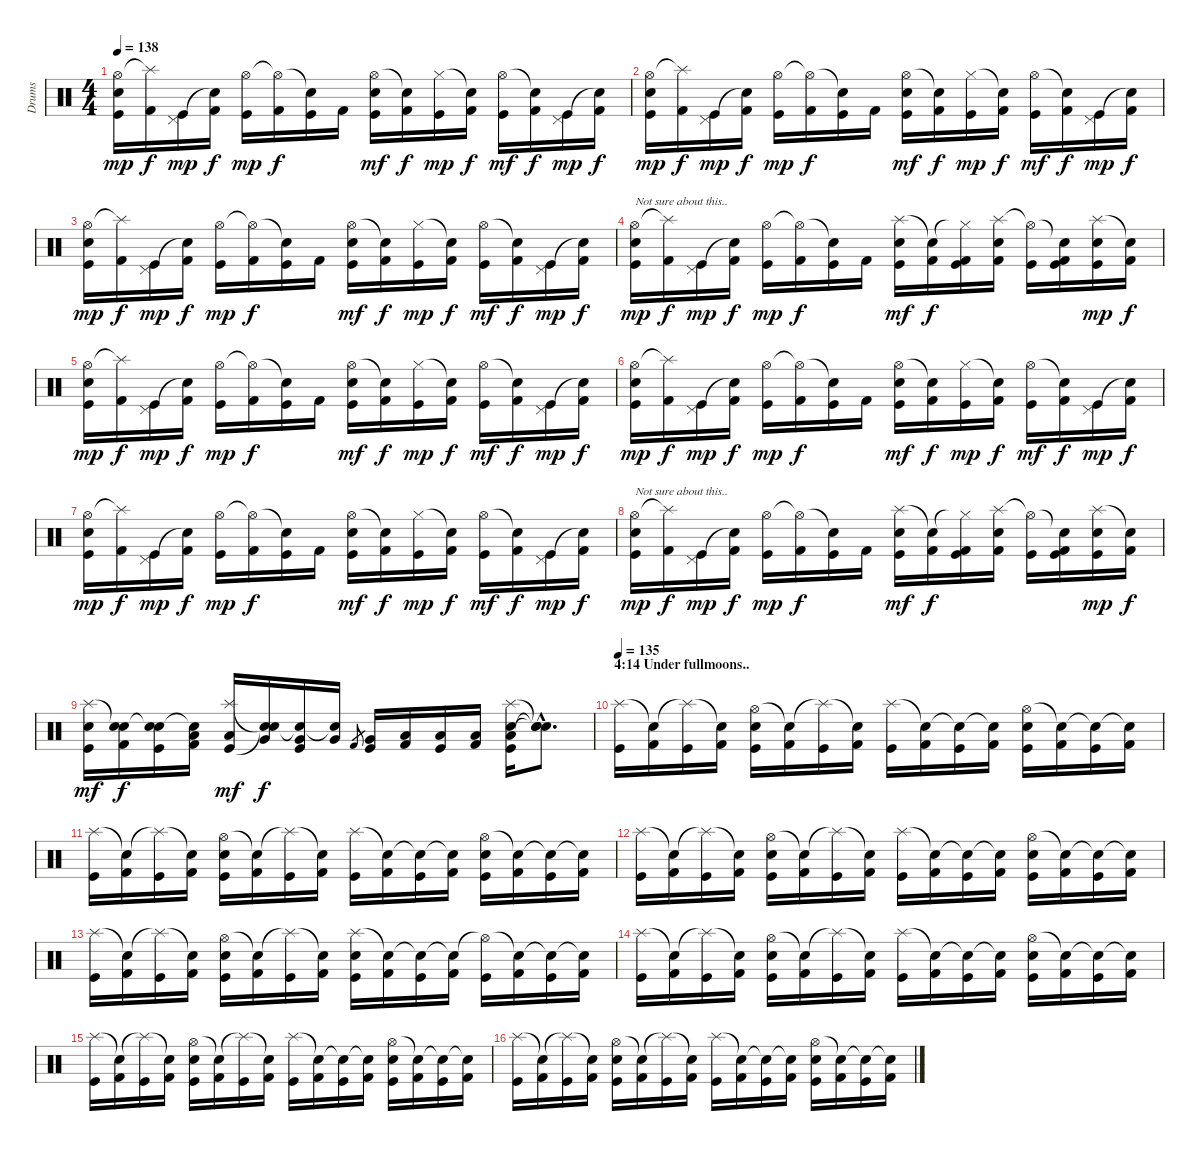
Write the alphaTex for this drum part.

\track ("Drums" "Drums") {instrument percussion}
\staff {score}
\articulation defaults
\ts (4 4)
\tempo 138
\clef neutral
\ks c
("Hi-Hat (open)" "Snare (hit) 2" "Kick (hit)").16{dy mp} ("Splash (hit)"{t} "Kick (hit) 2").16{dy f} ("Pedal Hi-Hat (hit)" "Kick (hit)").16{dy mp} ("Snare (hit)"{t} "Kick (hit) 2").16{dy f} ("Hi-Hat (open)" "Kick (hit)").16{dy mp} ("Hi-Hat (open)"{t} "Kick (hit) 2").16{dy f} ("Snare (hit)"{t} "Kick (hit)").16 "Kick (hit) 2".16 ("Hi-Hat (open)" "Snare (hit) 2" "Kick (hit)").16{dy mf} ("Snare (hit)"{t} "Kick (hit) 2").16{dy f} ("Hi-Hat (closed)" "Kick (hit)").16{dy mp} ("Snare (hit)"{t} "Kick (hit) 2").16{dy f} ("Hi-Hat (open)" "Kick (hit)").16{dy mf} ("Snare (hit)"{t} "Kick (hit) 2").16{dy f} ("Pedal Hi-Hat (hit)" "Kick (hit)").16{dy mp} ("Snare (hit)"{t} "Kick (hit) 2").16{dy f} |
("Hi-Hat (open)" "Snare (hit) 2" "Kick (hit)").16{dy mp} ("Splash (hit)"{t} "Kick (hit) 2").16{dy f} ("Pedal Hi-Hat (hit)" "Kick (hit)").16{dy mp} ("Snare (hit)"{t} "Kick (hit) 2").16{dy f} ("Hi-Hat (open)" "Kick (hit)").16{dy mp} ("Hi-Hat (open)"{t} "Kick (hit) 2").16{dy f} ("Snare (hit)"{t} "Kick (hit)").16 "Kick (hit) 2".16 ("Hi-Hat (open)" "Snare (hit) 2" "Kick (hit)").16{dy mf} ("Snare (hit)"{t} "Kick (hit) 2").16{dy f} ("Hi-Hat (closed)" "Kick (hit)").16{dy mp} ("Snare (hit)"{t} "Kick (hit) 2").16{dy f} ("Hi-Hat (open)" "Kick (hit)").16{dy mf} ("Snare (hit)"{t} "Kick (hit) 2").16{dy f} ("Pedal Hi-Hat (hit)" "Kick (hit)").16{dy mp} ("Snare (hit)"{t} "Kick (hit) 2").16{dy f} |
("Hi-Hat (open)" "Snare (hit) 2" "Kick (hit)").16{dy mp} ("Splash (hit)"{t} "Kick (hit) 2").16{dy f} ("Pedal Hi-Hat (hit)" "Kick (hit)").16{dy mp} ("Snare (hit)"{t} "Kick (hit) 2").16{dy f} ("Hi-Hat (open)" "Kick (hit)").16{dy mp} ("Hi-Hat (open)"{t} "Kick (hit) 2").16{dy f} ("Snare (hit)"{t} "Kick (hit)").16 "Kick (hit) 2".16 ("Hi-Hat (open)" "Snare (hit) 2" "Kick (hit)").16{dy mf} ("Snare (hit)"{t} "Kick (hit) 2").16{dy f} ("Hi-Hat (closed)" "Kick (hit)").16{dy mp} ("Snare (hit)"{t} "Kick (hit) 2").16{dy f} ("Hi-Hat (open)" "Kick (hit)").16{dy mf} ("Snare (hit)"{t} "Kick (hit) 2").16{dy f} ("Pedal Hi-Hat (hit)" "Kick (hit)").16{dy mp} ("Snare (hit)"{t} "Kick (hit) 2").16{dy f} |
("Hi-Hat (open)" "Snare (hit) 2" "Kick (hit)").16{txt "Not sure about this.." dy mp} ("Splash (hit)"{t} "Kick (hit) 2").16{dy f} ("Pedal Hi-Hat (hit)" "Kick (hit)").16{dy mp} ("Snare (hit)"{t} "Kick (hit) 2").16{dy f} ("Hi-Hat (open)" "Kick (hit)").16{dy mp} ("Hi-Hat (open)"{t} "Kick (hit) 2").16{dy f} ("Snare (hit)"{t} "Kick (hit)").16 "Kick (hit) 2".16 ("Splash (hit)" "Snare (hit) 2" "Kick (hit)").16{dy mf} ("Snare (hit)"{t} "Kick (hit) 2").16{dy f} ("Hi-Hat (closed)"{t} "Kick (hit) 2" "Kick (hit)").16 ("Splash (hit)" "Snare (hit) 2" "Kick (hit) 2").16 ("Hi-Hat (open)"{t} "Kick (hit)").16 ("Snare (hit)"{t} "Kick (hit)" "Kick (hit) 2").16 ("Splash (hit)" "Snare (hit) 2" "Kick (hit)").16{dy mp} ("Snare (hit)"{t} "Kick (hit) 2").16{dy f} |
("Hi-Hat (open)" "Snare (hit) 2" "Kick (hit)").16{dy mp} ("Splash (hit)"{t} "Kick (hit) 2").16{dy f} ("Pedal Hi-Hat (hit)" "Kick (hit)").16{dy mp} ("Snare (hit)"{t} "Kick (hit) 2").16{dy f} ("Hi-Hat (open)" "Kick (hit)").16{dy mp} ("Hi-Hat (open)"{t} "Kick (hit) 2").16{dy f} ("Snare (hit)"{t} "Kick (hit)").16 "Kick (hit) 2".16 ("Hi-Hat (open)" "Snare (hit) 2" "Kick (hit)").16{dy mf} ("Snare (hit)"{t} "Kick (hit) 2").16{dy f} ("Hi-Hat (closed)" "Kick (hit)").16{dy mp} ("Snare (hit)"{t} "Kick (hit) 2").16{dy f} ("Hi-Hat (open)" "Kick (hit)").16{dy mf} ("Snare (hit)"{t} "Kick (hit) 2").16{dy f} ("Pedal Hi-Hat (hit)" "Kick (hit)").16{dy mp} ("Snare (hit)"{t} "Kick (hit) 2").16{dy f} |
("Hi-Hat (open)" "Snare (hit) 2" "Kick (hit)").16{dy mp} ("Splash (hit)"{t} "Kick (hit) 2").16{dy f} ("Pedal Hi-Hat (hit)" "Kick (hit)").16{dy mp} ("Snare (hit)"{t} "Kick (hit) 2").16{dy f} ("Hi-Hat (open)" "Kick (hit)").16{dy mp} ("Hi-Hat (open)"{t} "Kick (hit) 2").16{dy f} ("Snare (hit)"{t} "Kick (hit)").16 "Kick (hit) 2".16 ("Hi-Hat (open)" "Snare (hit) 2" "Kick (hit)").16{dy mf} ("Snare (hit)"{t} "Kick (hit) 2").16{dy f} ("Hi-Hat (closed)" "Kick (hit)").16{dy mp} ("Snare (hit)"{t} "Kick (hit) 2").16{dy f} ("Hi-Hat (open)" "Kick (hit)").16{dy mf} ("Snare (hit)"{t} "Kick (hit) 2").16{dy f} ("Pedal Hi-Hat (hit)" "Kick (hit)").16{dy mp} ("Snare (hit)"{t} "Kick (hit) 2").16{dy f} |
("Hi-Hat (open)" "Snare (hit) 2" "Kick (hit)").16{dy mp} ("Splash (hit)"{t} "Kick (hit) 2").16{dy f} ("Pedal Hi-Hat (hit)" "Kick (hit)").16{dy mp} ("Snare (hit)"{t} "Kick (hit) 2").16{dy f} ("Hi-Hat (open)" "Kick (hit)").16{dy mp} ("Hi-Hat (open)"{t} "Kick (hit) 2").16{dy f} ("Snare (hit)"{t} "Kick (hit)").16 "Kick (hit) 2".16 ("Hi-Hat (open)" "Snare (hit) 2" "Kick (hit)").16{dy mf} ("Snare (hit)"{t} "Kick (hit) 2").16{dy f} ("Hi-Hat (closed)" "Kick (hit)").16{dy mp} ("Snare (hit)"{t} "Kick (hit) 2").16{dy f} ("Hi-Hat (open)" "Kick (hit)").16{dy mf} ("Snare (hit)"{t} "Kick (hit) 2").16{dy f} ("Pedal Hi-Hat (hit)" "Kick (hit)").16{dy mp} ("Snare (hit)"{t} "Kick (hit) 2").16{dy f} |
("Hi-Hat (open)" "Snare (hit) 2" "Kick (hit)").16{txt "Not sure about this.." dy mp} ("Splash (hit)"{t} "Kick (hit) 2").16{dy f} ("Pedal Hi-Hat (hit)" "Kick (hit)").16{dy mp} ("Snare (hit)"{t} "Kick (hit) 2").16{dy f} ("Hi-Hat (open)" "Kick (hit)").16{dy mp} ("Hi-Hat (open)"{t} "Kick (hit) 2").16{dy f} ("Snare (hit)"{t} "Kick (hit)").16 "Kick (hit) 2".16 ("Splash (hit)" "Snare (hit) 2" "Kick (hit)").16{dy mf} ("Snare (hit)"{t} "Kick (hit) 2").16{dy f} ("Hi-Hat (closed)"{t} "Kick (hit) 2" "Kick (hit)").16 ("Splash (hit)" "Snare (hit) 2" "Kick (hit) 2").16 ("Hi-Hat (open)"{t} "Kick (hit)").16 ("Snare (hit)"{t} "Kick (hit)" "Kick (hit) 2").16 ("Splash (hit)" "Snare (hit) 2" "Kick (hit)").16{dy mp} ("Snare (hit)"{t} "Kick (hit) 2").16{dy f} |
("Splash (hit)" "Snare (hit) 2" "Kick (hit)").16{dy mf} ("Snare (hit)"{t} "Snare (hit) 2" "Kick (hit) 2").16{dy f} ("Snare (hit)"{t} "Snare (hit) 2" "Kick (hit)").16 ("Snare (hit)"{t} "Low Tom (hit)" "Kick (hit) 2").16 ("Splash (hit)" "Low Tom (hit)" "Kick (hit)").16{dy mf} ("Snare (hit)"{t} "Very Low Tom (hit)" "Snare (hit)"{t}).16{dy f} ("Snare (hit)"{t} "Very Low Tom (hit)" "Kick (hit)").16 ("Snare (hit)"{t} "Very Low Tom (hit)").16 "Kick (hit) 2".8{gr} ("Very Low Tom (hit)" "Kick (hit)").16 ("Low Floor Tom (hit)" "Kick (hit) 2").16 ("Low Floor Tom (hit)" "Kick (hit)").16 ("Low Floor Tom (hit)" "Kick (hit) 2").16 ("Splash (hit)" "Snare (hit) 2" "Low Floor Tom (hit)" "Kick (hit)").16 ("Snare (hit)"{hac t} "Snare (hit)"{hac t} "Snare (hit)"{hac t}).8{d} |
\section ("" "4:14 Under fullmoons..")
\tempo 135
("Splash (hit)" "Kick (hit)").16 ("Snare (hit)"{t} "Kick (hit) 2").16 ("Splash (hit)"{t} "Kick (hit)").16 ("Snare (hit)"{t} "Kick (hit) 2").16 ("Hi-Hat (open)" "Snare (hit) 2" "Kick (hit)").16 ("Snare (hit)"{t} "Kick (hit) 2").16 ("Splash (hit)"{t} "Kick (hit)").16 ("Snare (hit)"{t} "Kick (hit) 2").16 ("Splash (hit)" "Kick (hit)").16 ("Snare (hit)"{t} "Kick (hit) 2").16 ("Snare (hit)"{t} "Kick (hit)").16 ("Snare (hit)"{t} "Kick (hit) 2").16 ("Hi-Hat (open)" "Snare (hit) 2" "Kick (hit)").16 ("Snare (hit)"{t} "Kick (hit) 2").16 ("Snare (hit)"{t} "Kick (hit)").16 ("Snare (hit)"{t} "Kick (hit) 2").16 |
("Splash (hit)" "Kick (hit)").16 ("Snare (hit)"{t} "Kick (hit) 2").16 ("Splash (hit)"{t} "Kick (hit)").16 ("Snare (hit)"{t} "Kick (hit) 2").16 ("Hi-Hat (open)" "Snare (hit) 2" "Kick (hit)").16 ("Snare (hit)"{t} "Kick (hit) 2").16 ("Splash (hit)"{t} "Kick (hit)").16 ("Snare (hit)"{t} "Kick (hit) 2").16 ("Splash (hit)" "Kick (hit)").16 ("Snare (hit)"{t} "Kick (hit) 2").16 ("Snare (hit)"{t} "Kick (hit)").16 ("Snare (hit)"{t} "Kick (hit) 2").16 ("Hi-Hat (open)" "Snare (hit) 2" "Kick (hit)").16 ("Snare (hit)"{t} "Kick (hit) 2").16 ("Snare (hit)"{t} "Kick (hit)").16 ("Snare (hit)"{t} "Kick (hit) 2").16 |
("Splash (hit)" "Kick (hit)").16 ("Snare (hit)"{t} "Kick (hit) 2").16 ("Splash (hit)"{t} "Kick (hit)").16 ("Snare (hit)"{t} "Kick (hit) 2").16 ("Hi-Hat (open)" "Snare (hit) 2" "Kick (hit)").16 ("Snare (hit)"{t} "Kick (hit) 2").16 ("Splash (hit)"{t} "Kick (hit)").16 ("Snare (hit)"{t} "Kick (hit) 2").16 ("Splash (hit)" "Kick (hit)").16 ("Snare (hit)"{t} "Kick (hit) 2").16 ("Snare (hit)"{t} "Kick (hit)").16 ("Snare (hit)"{t} "Kick (hit) 2").16 ("Hi-Hat (open)" "Snare (hit) 2" "Kick (hit)").16 ("Snare (hit)"{t} "Kick (hit) 2").16 ("Snare (hit)"{t} "Kick (hit)").16 ("Snare (hit)"{t} "Kick (hit) 2").16 |
("Splash (hit)" "Kick (hit)").16 ("Snare (hit)"{t} "Kick (hit) 2").16 ("Splash (hit)"{t} "Kick (hit)").16 ("Snare (hit)"{t} "Kick (hit) 2").16 ("Hi-Hat (open)" "Snare (hit) 2" "Kick (hit)").16 ("Snare (hit)"{t} "Kick (hit) 2").16 ("Splash (hit)"{t} "Kick (hit)").16 ("Snare (hit)"{t} "Kick (hit) 2").16 ("Splash (hit)" "Snare (hit) 2" "Kick (hit)").16 ("Snare (hit)"{t} "Kick (hit) 2").16 ("Snare (hit)"{t} "Kick (hit)").16 ("Snare (hit)"{t} "Kick (hit) 2").16 ("Hi-Hat (open)"{t} "Kick (hit)").16 ("Snare (hit)"{t} "Kick (hit) 2").16 ("Snare (hit)"{t} "Kick (hit)").16 ("Snare (hit)"{t} "Kick (hit) 2").16 |
("Splash (hit)" "Kick (hit)").16 ("Snare (hit)"{t} "Kick (hit) 2").16 ("Splash (hit)"{t} "Kick (hit)").16 ("Snare (hit)"{t} "Kick (hit) 2").16 ("Hi-Hat (open)" "Snare (hit) 2" "Kick (hit)").16 ("Snare (hit)"{t} "Kick (hit) 2").16 ("Splash (hit)"{t} "Kick (hit)").16 ("Snare (hit)"{t} "Kick (hit) 2").16 ("Splash (hit)" "Kick (hit)").16 ("Snare (hit)"{t} "Kick (hit) 2").16 ("Snare (hit)"{t} "Kick (hit)").16 ("Snare (hit)"{t} "Kick (hit) 2").16 ("Hi-Hat (open)" "Snare (hit) 2" "Kick (hit)").16 ("Snare (hit)"{t} "Kick (hit) 2").16 ("Snare (hit)"{t} "Kick (hit)").16 ("Snare (hit)"{t} "Kick (hit) 2").16 |
("Splash (hit)" "Kick (hit)").16 ("Snare (hit)"{t} "Kick (hit) 2").16 ("Splash (hit)"{t} "Kick (hit)").16 ("Snare (hit)"{t} "Kick (hit) 2").16 ("Hi-Hat (open)" "Snare (hit) 2" "Kick (hit)").16 ("Snare (hit)"{t} "Kick (hit) 2").16 ("Splash (hit)"{t} "Kick (hit)").16 ("Snare (hit)"{t} "Kick (hit) 2").16 ("Splash (hit)" "Kick (hit)").16 ("Snare (hit)"{t} "Kick (hit) 2").16 ("Snare (hit)"{t} "Kick (hit)").16 ("Snare (hit)"{t} "Kick (hit) 2").16 ("Hi-Hat (open)" "Snare (hit) 2" "Kick (hit)").16 ("Snare (hit)"{t} "Kick (hit) 2").16 ("Snare (hit)"{t} "Kick (hit)").16 ("Snare (hit)"{t} "Kick (hit) 2").16 |
("Splash (hit)" "Kick (hit)").16 ("Snare (hit)"{t} "Kick (hit) 2").16 ("Splash (hit)"{t} "Kick (hit)").16 ("Snare (hit)"{t} "Kick (hit) 2").16 ("Hi-Hat (open)" "Snare (hit) 2" "Kick (hit)").16 ("Snare (hit)"{t} "Kick (hit) 2").16 ("Splash (hit)"{t} "Kick (hit)").16 ("Snare (hit)"{t} "Kick (hit) 2").16 ("Splash (hit)" "Kick (hit)").16 ("Snare (hit)"{t} "Kick (hit) 2").16 ("Snare (hit)"{t} "Kick (hit)").16 ("Snare (hit)"{t} "Kick (hit) 2").16 ("Hi-Hat (open)" "Snare (hit) 2" "Kick (hit)").16 ("Snare (hit)"{t} "Kick (hit) 2").16 ("Snare (hit)"{t} "Kick (hit)").16 ("Snare (hit)"{t} "Kick (hit) 2").16
